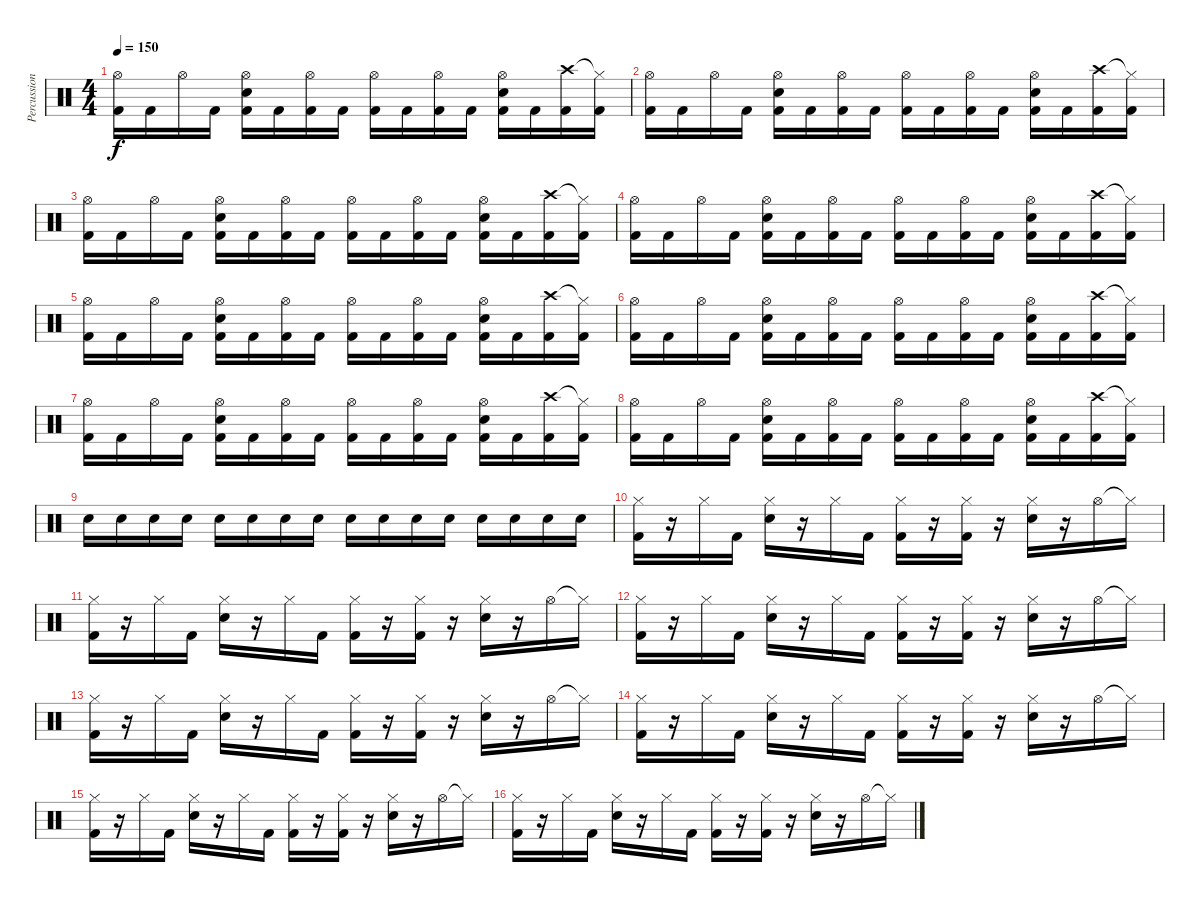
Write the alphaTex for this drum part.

\track ("Percussion" "Percussion") {instrument percussion}
\staff {score}
\articulation defaults
\ts (4 4)
\tempo 150
\clef neutral
\ks c
("Hi-Hat (open)" "Kick (hit) 2").16{dy f} "Kick (hit) 2".16 "Hi-Hat (open)".16 "Kick (hit) 2".16 ("Hi-Hat (open)" "Electric Snare (hit)" "Kick (hit) 2").16 "Kick (hit) 2".16 ("Hi-Hat (open)" "Kick (hit) 2").16 "Kick (hit) 2".16 ("Hi-Hat (open)" "Kick (hit) 2").16 "Kick (hit) 2".16 ("Hi-Hat (open)" "Kick (hit) 2").16 "Kick (hit) 2".16 ("Hi-Hat (open)" "Electric Snare (hit)" "Kick (hit) 2").16 "Kick (hit) 2".16 ("Crash high (hit)" "Kick (hit) 2").16 ("Hi-Hat (closed)"{t} "Kick (hit) 2").16 |
("Hi-Hat (open)" "Kick (hit) 2").16 "Kick (hit) 2".16 "Hi-Hat (open)".16 "Kick (hit) 2".16 ("Hi-Hat (open)" "Electric Snare (hit)" "Kick (hit) 2").16 "Kick (hit) 2".16 ("Hi-Hat (open)" "Kick (hit) 2").16 "Kick (hit) 2".16 ("Hi-Hat (open)" "Kick (hit) 2").16 "Kick (hit) 2".16 ("Hi-Hat (open)" "Kick (hit) 2").16 "Kick (hit) 2".16 ("Hi-Hat (open)" "Electric Snare (hit)" "Kick (hit) 2").16 "Kick (hit) 2".16 ("Crash high (hit)" "Kick (hit) 2").16 ("Hi-Hat (closed)"{t} "Kick (hit) 2").16 |
("Hi-Hat (open)" "Kick (hit) 2").16 "Kick (hit) 2".16 "Hi-Hat (open)".16 "Kick (hit) 2".16 ("Hi-Hat (open)" "Electric Snare (hit)" "Kick (hit) 2").16 "Kick (hit) 2".16 ("Hi-Hat (open)" "Kick (hit) 2").16 "Kick (hit) 2".16 ("Hi-Hat (open)" "Kick (hit) 2").16 "Kick (hit) 2".16 ("Hi-Hat (open)" "Kick (hit) 2").16 "Kick (hit) 2".16 ("Hi-Hat (open)" "Electric Snare (hit)" "Kick (hit) 2").16 "Kick (hit) 2".16 ("Crash high (hit)" "Kick (hit) 2").16 ("Hi-Hat (closed)"{t} "Kick (hit) 2").16 |
("Hi-Hat (open)" "Kick (hit) 2").16 "Kick (hit) 2".16 "Hi-Hat (open)".16 "Kick (hit) 2".16 ("Hi-Hat (open)" "Electric Snare (hit)" "Kick (hit) 2").16 "Kick (hit) 2".16 ("Hi-Hat (open)" "Kick (hit) 2").16 "Kick (hit) 2".16 ("Hi-Hat (open)" "Kick (hit) 2").16 "Kick (hit) 2".16 ("Hi-Hat (open)" "Kick (hit) 2").16 "Kick (hit) 2".16 ("Hi-Hat (open)" "Electric Snare (hit)" "Kick (hit) 2").16 "Kick (hit) 2".16 ("Crash high (hit)" "Kick (hit) 2").16 ("Hi-Hat (closed)"{t} "Kick (hit) 2").16 |
("Hi-Hat (open)" "Kick (hit) 2").16 "Kick (hit) 2".16 "Hi-Hat (open)".16 "Kick (hit) 2".16 ("Hi-Hat (open)" "Electric Snare (hit)" "Kick (hit) 2").16 "Kick (hit) 2".16 ("Hi-Hat (open)" "Kick (hit) 2").16 "Kick (hit) 2".16 ("Hi-Hat (open)" "Kick (hit) 2").16 "Kick (hit) 2".16 ("Hi-Hat (open)" "Kick (hit) 2").16 "Kick (hit) 2".16 ("Hi-Hat (open)" "Electric Snare (hit)" "Kick (hit) 2").16 "Kick (hit) 2".16 ("Crash high (hit)" "Kick (hit) 2").16 ("Hi-Hat (closed)"{t} "Kick (hit) 2").16 |
("Hi-Hat (open)" "Kick (hit) 2").16 "Kick (hit) 2".16 "Hi-Hat (open)".16 "Kick (hit) 2".16 ("Hi-Hat (open)" "Electric Snare (hit)" "Kick (hit) 2").16 "Kick (hit) 2".16 ("Hi-Hat (open)" "Kick (hit) 2").16 "Kick (hit) 2".16 ("Hi-Hat (open)" "Kick (hit) 2").16 "Kick (hit) 2".16 ("Hi-Hat (open)" "Kick (hit) 2").16 "Kick (hit) 2".16 ("Hi-Hat (open)" "Electric Snare (hit)" "Kick (hit) 2").16 "Kick (hit) 2".16 ("Crash high (hit)" "Kick (hit) 2").16 ("Hi-Hat (closed)"{t} "Kick (hit) 2").16 |
("Hi-Hat (open)" "Kick (hit) 2").16 "Kick (hit) 2".16 "Hi-Hat (open)".16 "Kick (hit) 2".16 ("Hi-Hat (open)" "Electric Snare (hit)" "Kick (hit) 2").16 "Kick (hit) 2".16 ("Hi-Hat (open)" "Kick (hit) 2").16 "Kick (hit) 2".16 ("Hi-Hat (open)" "Kick (hit) 2").16 "Kick (hit) 2".16 ("Hi-Hat (open)" "Kick (hit) 2").16 "Kick (hit) 2".16 ("Hi-Hat (open)" "Electric Snare (hit)" "Kick (hit) 2").16 "Kick (hit) 2".16 ("Crash high (hit)" "Kick (hit) 2").16 ("Hi-Hat (closed)"{t} "Kick (hit) 2").16 |
("Hi-Hat (open)" "Kick (hit) 2").16 "Kick (hit) 2".16 "Hi-Hat (open)".16 "Kick (hit) 2".16 ("Hi-Hat (open)" "Electric Snare (hit)" "Kick (hit) 2").16 "Kick (hit) 2".16 ("Hi-Hat (open)" "Kick (hit) 2").16 "Kick (hit) 2".16 ("Hi-Hat (open)" "Kick (hit) 2").16 "Kick (hit) 2".16 ("Hi-Hat (open)" "Kick (hit) 2").16 "Kick (hit) 2".16 ("Hi-Hat (open)" "Electric Snare (hit)" "Kick (hit) 2").16 "Kick (hit) 2".16 ("Crash high (hit)" "Kick (hit) 2").16 ("Hi-Hat (closed)"{t} "Kick (hit) 2").16 |
"Electric Snare (hit)".16 "Electric Snare (hit)".16 "Electric Snare (hit)".16 "Electric Snare (hit)".16 "Electric Snare (hit)".16 "Electric Snare (hit)".16 "Electric Snare (hit)".16 "Electric Snare (hit)".16 "Electric Snare (hit)".16 "Electric Snare (hit)".16 "Electric Snare (hit)".16 "Electric Snare (hit)".16 "Electric Snare (hit)".16 "Electric Snare (hit)".16 "Electric Snare (hit)".16 "Electric Snare (hit)".16 |
("Hi-Hat (closed)" "Kick (hit) 2").16 r.16 "Hi-Hat (closed)".16 "Kick (hit) 2".16 ("Hi-Hat (closed)" "Electric Snare (hit)").16 r.16 "Hi-Hat (closed)".16 "Kick (hit) 2".16 ("Hi-Hat (closed)" "Kick (hit) 2").16 r.16 ("Hi-Hat (closed)" "Kick (hit) 2").16 r.16 ("Hi-Hat (closed)" "Electric Snare (hit)").16 r.16 "Hi-Hat (open)".16 "Hi-Hat (closed)"{t}.16 |
("Hi-Hat (closed)" "Kick (hit) 2").16 r.16 "Hi-Hat (closed)".16 "Kick (hit) 2".16 ("Hi-Hat (closed)" "Electric Snare (hit)").16 r.16 "Hi-Hat (closed)".16 "Kick (hit) 2".16 ("Hi-Hat (closed)" "Kick (hit) 2").16 r.16 ("Hi-Hat (closed)" "Kick (hit) 2").16 r.16 ("Hi-Hat (closed)" "Electric Snare (hit)").16 r.16 "Hi-Hat (open)".16 "Hi-Hat (closed)"{t}.16 |
("Hi-Hat (closed)" "Kick (hit) 2").16 r.16 "Hi-Hat (closed)".16 "Kick (hit) 2".16 ("Hi-Hat (closed)" "Electric Snare (hit)").16 r.16 "Hi-Hat (closed)".16 "Kick (hit) 2".16 ("Hi-Hat (closed)" "Kick (hit) 2").16 r.16 ("Hi-Hat (closed)" "Kick (hit) 2").16 r.16 ("Hi-Hat (closed)" "Electric Snare (hit)").16 r.16 "Hi-Hat (open)".16 "Hi-Hat (closed)"{t}.16 |
("Hi-Hat (closed)" "Kick (hit) 2").16 r.16 "Hi-Hat (closed)".16 "Kick (hit) 2".16 ("Hi-Hat (closed)" "Electric Snare (hit)").16 r.16 "Hi-Hat (closed)".16 "Kick (hit) 2".16 ("Hi-Hat (closed)" "Kick (hit) 2").16 r.16 ("Hi-Hat (closed)" "Kick (hit) 2").16 r.16 ("Hi-Hat (closed)" "Electric Snare (hit)").16 r.16 "Hi-Hat (open)".16 "Hi-Hat (closed)"{t}.16 |
("Hi-Hat (closed)" "Kick (hit) 2").16 r.16 "Hi-Hat (closed)".16 "Kick (hit) 2".16 ("Hi-Hat (closed)" "Electric Snare (hit)").16 r.16 "Hi-Hat (closed)".16 "Kick (hit) 2".16 ("Hi-Hat (closed)" "Kick (hit) 2").16 r.16 ("Hi-Hat (closed)" "Kick (hit) 2").16 r.16 ("Hi-Hat (closed)" "Electric Snare (hit)").16 r.16 "Hi-Hat (open)".16 "Hi-Hat (closed)"{t}.16 |
("Hi-Hat (closed)" "Kick (hit) 2").16 r.16 "Hi-Hat (closed)".16 "Kick (hit) 2".16 ("Hi-Hat (closed)" "Electric Snare (hit)").16 r.16 "Hi-Hat (closed)".16 "Kick (hit) 2".16 ("Hi-Hat (closed)" "Kick (hit) 2").16 r.16 ("Hi-Hat (closed)" "Kick (hit) 2").16 r.16 ("Hi-Hat (closed)" "Electric Snare (hit)").16 r.16 "Hi-Hat (open)".16 "Hi-Hat (closed)"{t}.16 |
("Hi-Hat (closed)" "Kick (hit) 2").16 r.16 "Hi-Hat (closed)".16 "Kick (hit) 2".16 ("Hi-Hat (closed)" "Electric Snare (hit)").16 r.16 "Hi-Hat (closed)".16 "Kick (hit) 2".16 ("Hi-Hat (closed)" "Kick (hit) 2").16 r.16 ("Hi-Hat (closed)" "Kick (hit) 2").16 r.16 ("Hi-Hat (closed)" "Electric Snare (hit)").16 r.16 "Hi-Hat (open)".16 "Hi-Hat (closed)"{t}.16
